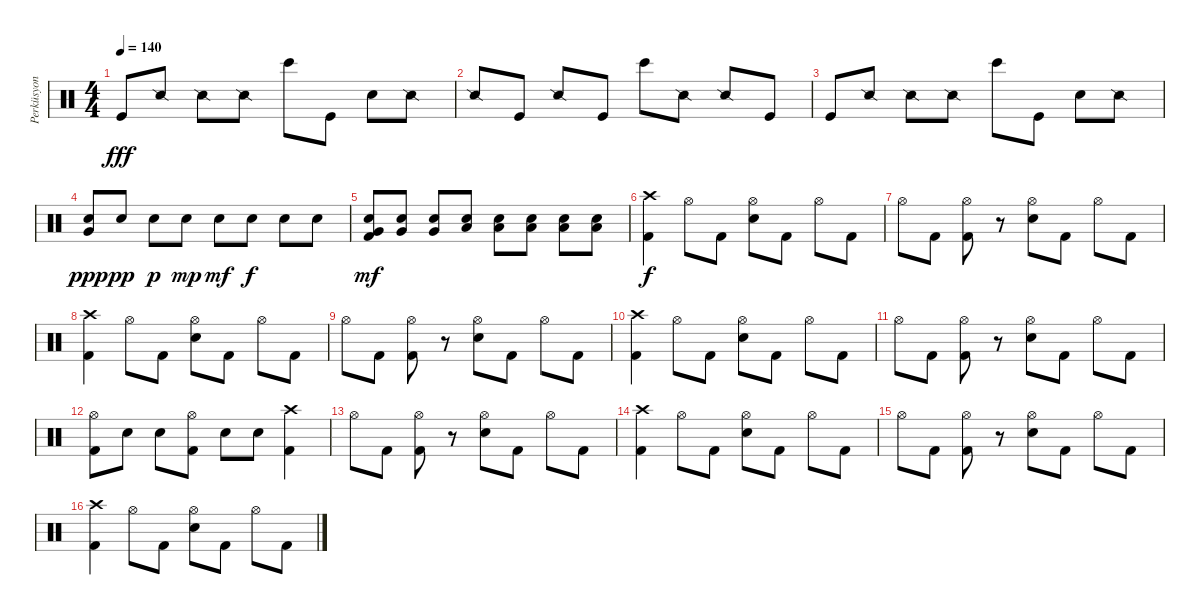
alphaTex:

\track ("Perküsyon" "Perküsyon") {instrument percussion}
\staff {score}
\articulation defaults
\ts (4 4)
\tempo 140
\clef neutral
\ks c "Kick (hit)".8{dy fff} "Snare (side stick) 2".8 "Snare (side stick) 2".8 "Snare (side stick) 2".8 "Bongo High (hit)".8 "Kick (hit)".8 "Metronome (bell)".8 "Snare (side stick) 2".8
|
"Snare (side stick) 2".8 "Kick (hit)".8 "Snare (side stick) 2".8 "Kick (hit)".8 "Bongo High (hit)".8 "Snare (side stick) 2".8 "Snare (side stick) 2".8 "Kick (hit)".8 |
"Kick (hit)".8 "Snare (side stick) 2".8 "Snare (side stick) 2".8 "Snare (side stick) 2".8 "Bongo High (hit)".8 "Kick (hit)".8 "Metronome (bell)".8 "Snare (side stick) 2".8 |
("Very Low Tom (hit)" "Electric Snare (hit)").8{dy ppp} "Electric Snare (hit)".8{dy pp} "Electric Snare (hit)".8{dy p} "Electric Snare (hit)".8{dy mp} "Electric Snare (hit)".8{dy mf} "Electric Snare (hit)".8{dy f} "Electric Snare (hit)".8 "Electric Snare (hit)".8 |
("Very Low Tom (hit)" "Electric Snare (hit)" "Kick (hit) 2").8{dy mf} ("Very Low Tom (hit)" "Electric Snare (hit)").8 ("Very Low Tom (hit)" "Electric Snare (hit)").8 ("Low Floor Tom (hit)" "Electric Snare (hit)").8 ("Low Floor Tom (hit)" "Electric Snare (hit)").8 ("Low Floor Tom (hit)" "Electric Snare (hit)").8 ("Low Floor Tom (hit)" "Electric Snare (hit)").8 ("Low Floor Tom (hit)" "Electric Snare (hit)").8 |
("Crash high (hit)" "Kick (hit) 2").4{dy f} "Hi-Hat (open)".8 "Kick (hit) 2".8 ("Hi-Hat (open)" "Electric Snare (hit)").8 "Kick (hit) 2".8 "Hi-Hat (open)".8 "Kick (hit) 2".8 |
"Hi-Hat (open)".8 "Kick (hit) 2".8 ("Hi-Hat (open)" "Kick (hit) 2").8 r.8 ("Hi-Hat (open)" "Electric Snare (hit)").8 "Kick (hit) 2".8 "Hi-Hat (open)".8 "Kick (hit) 2".8 |
("Crash high (hit)" "Kick (hit) 2").4 "Hi-Hat (open)".8 "Kick (hit) 2".8 ("Hi-Hat (open)" "Electric Snare (hit)").8 "Kick (hit) 2".8 "Hi-Hat (open)".8 "Kick (hit) 2".8 |
"Hi-Hat (open)".8 "Kick (hit) 2".8 ("Hi-Hat (open)" "Kick (hit) 2").8 r.8 ("Hi-Hat (open)" "Electric Snare (hit)").8 "Kick (hit) 2".8 "Hi-Hat (open)".8 "Kick (hit) 2".8 |
("Crash high (hit)" "Kick (hit) 2").4 "Hi-Hat (open)".8 "Kick (hit) 2".8 ("Hi-Hat (open)" "Electric Snare (hit)").8 "Kick (hit) 2".8 "Hi-Hat (open)".8 "Kick (hit) 2".8 |
"Hi-Hat (open)".8 "Kick (hit) 2".8 ("Hi-Hat (open)" "Kick (hit) 2").8 r.8 ("Hi-Hat (open)" "Electric Snare (hit)").8 "Kick (hit) 2".8 "Hi-Hat (open)".8 "Kick (hit) 2".8 |
("Hi-Hat (open)" "Kick (hit) 2").8 "Electric Snare (hit)".8 "Electric Snare (hit)".8 ("Hi-Hat (open)" "Kick (hit) 2").8 "Electric Snare (hit)".8 "Electric Snare (hit)".8 ("Crash high (hit)" "Kick (hit) 2").4 |
"Hi-Hat (open)".8 "Kick (hit) 2".8 ("Hi-Hat (open)" "Kick (hit) 2").8 r.8 ("Hi-Hat (open)" "Electric Snare (hit)").8 "Kick (hit) 2".8 "Hi-Hat (open)".8 "Kick (hit) 2".8 |
("Crash high (hit)" "Kick (hit) 2").4 "Hi-Hat (open)".8 "Kick (hit) 2".8 ("Hi-Hat (open)" "Electric Snare (hit)").8 "Kick (hit) 2".8 "Hi-Hat (open)".8 "Kick (hit) 2".8 |
"Hi-Hat (open)".8 "Kick (hit) 2".8 ("Hi-Hat (open)" "Kick (hit) 2").8 r.8 ("Hi-Hat (open)" "Electric Snare (hit)").8 "Kick (hit) 2".8 "Hi-Hat (open)".8 "Kick (hit) 2".8 |
("Crash high (hit)" "Kick (hit) 2").4 "Hi-Hat (open)".8 "Kick (hit) 2".8 ("Hi-Hat (open)" "Electric Snare (hit)").8 "Kick (hit) 2".8 "Hi-Hat (open)".8 "Kick (hit) 2".8
